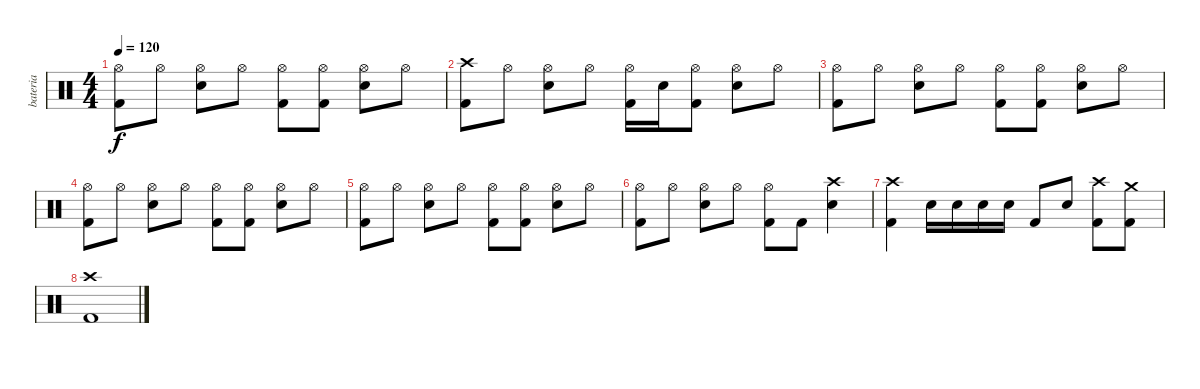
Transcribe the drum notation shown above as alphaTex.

\track ("bateria" "bateria") {instrument percussion}
\staff {score}
\articulation defaults
\ts (4 4)
\tempo 120
\clef neutral
\ks c
("Kick (hit) 2" "Hi-Hat (open)").8{dy f} "Hi-Hat (open)".8 ("Electric Snare (hit)" "Hi-Hat (open)").8 "Hi-Hat (open)".8 ("Kick (hit) 2" "Hi-Hat (open)").8 ("Kick (hit) 2" "Hi-Hat (open)").8 ("Electric Snare (hit)" "Hi-Hat (open)").8 "Hi-Hat (open)".8 |
("Crash high (hit)" "Kick (hit) 2").8 "Hi-Hat (open)".8 ("Electric Snare (hit)" "Hi-Hat (open)").8 "Hi-Hat (open)".8 ("Kick (hit) 2" "Hi-Hat (open)").16 "Electric Snare (hit)".16 ("Kick (hit) 2" "Hi-Hat (open)").8 ("Electric Snare (hit)" "Hi-Hat (open)").8 "Hi-Hat (open)".8 |
("Kick (hit) 2" "Hi-Hat (open)").8 "Hi-Hat (open)".8 ("Electric Snare (hit)" "Hi-Hat (open)").8 "Hi-Hat (open)".8 ("Kick (hit) 2" "Hi-Hat (open)").8 ("Kick (hit) 2" "Hi-Hat (open)").8 ("Electric Snare (hit)" "Hi-Hat (open)").8 "Hi-Hat (open)".8 |
("Kick (hit) 2" "Hi-Hat (open)").8 "Hi-Hat (open)".8 ("Electric Snare (hit)" "Hi-Hat (open)").8 "Hi-Hat (open)".8 ("Kick (hit) 2" "Hi-Hat (open)").8 ("Kick (hit) 2" "Hi-Hat (open)").8 ("Electric Snare (hit)" "Hi-Hat (open)").8 "Hi-Hat (open)".8 |
("Kick (hit) 2" "Hi-Hat (open)").8 "Hi-Hat (open)".8 ("Electric Snare (hit)" "Hi-Hat (open)").8 "Hi-Hat (open)".8 ("Kick (hit) 2" "Hi-Hat (open)").8 ("Kick (hit) 2" "Hi-Hat (open)").8 ("Electric Snare (hit)" "Hi-Hat (open)").8 "Hi-Hat (open)".8 |
("Kick (hit) 2" "Hi-Hat (open)").8 "Hi-Hat (open)".8 ("Electric Snare (hit)" "Hi-Hat (open)").8 "Hi-Hat (open)".8 ("Kick (hit) 2" "Hi-Hat (open)").8 "Kick (hit) 2".8 ("Crash high (hit)" "Electric Snare (hit)").4 |
("Crash high (hit)" "Kick (hit) 2").4 "Electric Snare (hit)".16 "Electric Snare (hit)".16 "Electric Snare (hit)".16 "Electric Snare (hit)".16 "Kick (hit) 2".8 "Electric Snare (hit)".8 ("Crash high (hit)" "Kick (hit) 2").8 ("Crash medium (hit)" "Kick (hit) 2").8 |
("Crash high (hit)" "Kick (hit) 2").1
